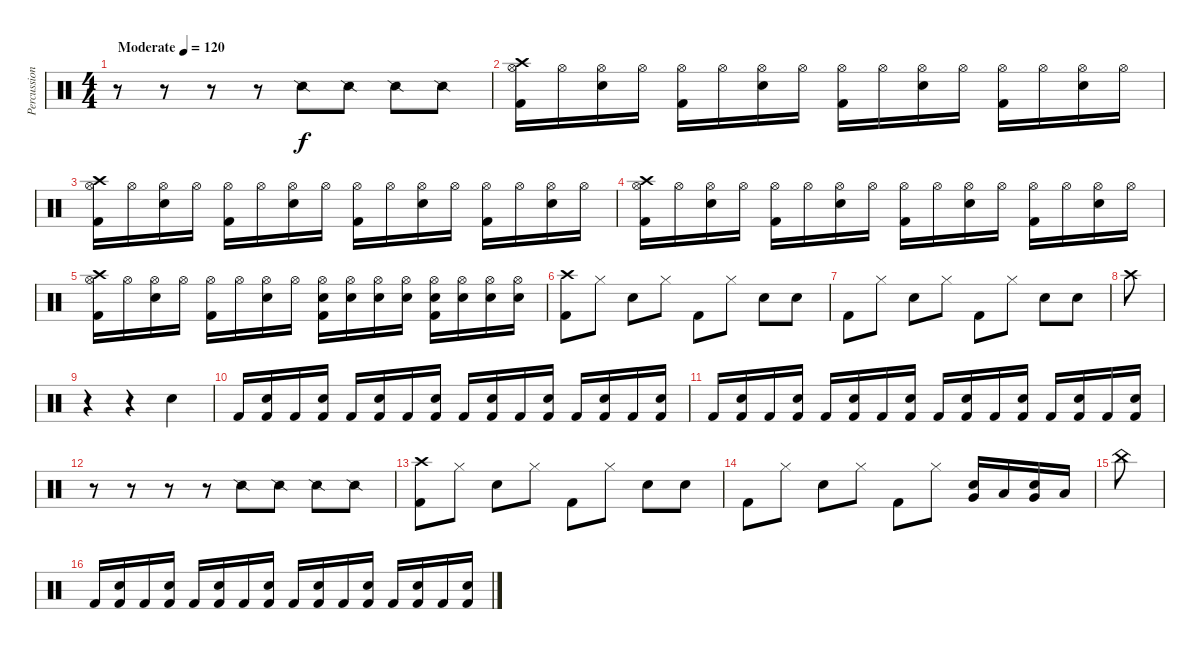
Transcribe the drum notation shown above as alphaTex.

\track ("Percussion" "Percussion") {instrument percussion}
\staff {score}
\articulation defaults
\ts (4 4)
\tempo (120 "Moderate")
\clef neutral
\ks c
r.8{dy f} r.8 r.8 r.8 "Snare (side stick) 2".8 "Snare (side stick) 2".8 "Snare (side stick) 2".8 "Snare (side stick) 2".8 |
("Hi-Hat (open)" "Crash high (hit)" "Kick (hit) 2").16 "Hi-Hat (open)".16 ("Hi-Hat (open)" "Snare (hit) 2").16 "Hi-Hat (open)".16 ("Hi-Hat (open)" "Kick (hit) 2").16 "Hi-Hat (open)".16 ("Hi-Hat (open)" "Snare (hit) 2").16 "Hi-Hat (open)".16 ("Hi-Hat (open)" "Kick (hit) 2").16 "Hi-Hat (open)".16 ("Hi-Hat (open)" "Snare (hit) 2").16 "Hi-Hat (open)".16 ("Hi-Hat (open)" "Kick (hit) 2").16 "Hi-Hat (open)".16 ("Hi-Hat (open)" "Snare (hit) 2").16 "Hi-Hat (open)".16 |
("Hi-Hat (open)" "Crash high (hit)" "Kick (hit) 2").16 "Hi-Hat (open)".16 ("Hi-Hat (open)" "Snare (hit) 2").16 "Hi-Hat (open)".16 ("Hi-Hat (open)" "Kick (hit) 2").16 "Hi-Hat (open)".16 ("Hi-Hat (open)" "Snare (hit) 2").16 "Hi-Hat (open)".16 ("Hi-Hat (open)" "Kick (hit) 2").16 "Hi-Hat (open)".16 ("Hi-Hat (open)" "Snare (hit) 2").16 "Hi-Hat (open)".16 ("Hi-Hat (open)" "Kick (hit) 2").16 "Hi-Hat (open)".16 ("Hi-Hat (open)" "Snare (hit) 2").16 "Hi-Hat (open)".16 |
("Hi-Hat (open)" "Crash high (hit)" "Kick (hit) 2").16 "Hi-Hat (open)".16 ("Hi-Hat (open)" "Snare (hit) 2").16 "Hi-Hat (open)".16 ("Hi-Hat (open)" "Kick (hit) 2").16 "Hi-Hat (open)".16 ("Hi-Hat (open)" "Snare (hit) 2").16 "Hi-Hat (open)".16 ("Hi-Hat (open)" "Kick (hit) 2").16 "Hi-Hat (open)".16 ("Hi-Hat (open)" "Snare (hit) 2").16 "Hi-Hat (open)".16 ("Hi-Hat (open)" "Kick (hit) 2").16 "Hi-Hat (open)".16 ("Hi-Hat (open)" "Snare (hit) 2").16 "Hi-Hat (open)".16 |
("Hi-Hat (open)" "Crash high (hit)" "Kick (hit) 2").16 "Hi-Hat (open)".16 ("Hi-Hat (open)" "Snare (hit) 2").16 "Hi-Hat (open)".16 ("Hi-Hat (open)" "Kick (hit) 2").16 "Hi-Hat (open)".16 ("Hi-Hat (open)" "Snare (hit) 2").16 "Hi-Hat (open)".16 ("Electric Snare (hit)" "Hi-Hat (open)" "Kick (hit) 2").16 ("Electric Snare (hit)" "Hi-Hat (open)").16 ("Hi-Hat (open)" "Snare (hit) 2").16 ("Electric Snare (hit)" "Hi-Hat (open)").16 ("Electric Snare (hit)" "Hi-Hat (open)" "Kick (hit) 2").16 ("Electric Snare (hit)" "Hi-Hat (open)").16 ("Hi-Hat (open)" "Snare (hit) 2").16 ("Electric Snare (hit)" "Hi-Hat (open)").16 |
("Crash high (hit)" "Kick (hit) 2").8 "Hi-Hat (closed)".8 "Snare (hit) 2".8 "Hi-Hat (closed)".8 "Kick (hit) 2".8 "Hi-Hat (closed)".8 "Snare (hit) 2".8 "Snare (hit) 2".8 |
"Kick (hit) 2".8 "Hi-Hat (closed)".8 "Snare (hit) 2".8 "Hi-Hat (closed)".8 "Kick (hit) 2".8 "Hi-Hat (closed)".8 "Snare (hit) 2".8 "Snare (hit) 2".8 |
"Crash high (hit)".8 |
r.4 r.4 "Snare (hit) 2".4 |
"Kick (hit) 2".16 ("Snare (hit) 2" "Kick (hit) 2").16 "Kick (hit) 2".16 ("Snare (hit) 2" "Kick (hit) 2").16 "Kick (hit) 2".16 ("Snare (hit) 2" "Kick (hit) 2").16 "Kick (hit) 2".16 ("Snare (hit) 2" "Kick (hit) 2").16 "Kick (hit) 2".16 ("Snare (hit) 2" "Kick (hit) 2").16 "Kick (hit) 2".16 ("Snare (hit) 2" "Kick (hit) 2").16 "Kick (hit) 2".16 ("Snare (hit) 2" "Kick (hit) 2").16 "Kick (hit) 2".16 ("Snare (hit) 2" "Kick (hit) 2").16 |
"Kick (hit) 2".16 ("Snare (hit) 2" "Kick (hit) 2").16 "Kick (hit) 2".16 ("Snare (hit) 2" "Kick (hit) 2").16 "Kick (hit) 2".16 ("Snare (hit) 2" "Kick (hit) 2").16 "Kick (hit) 2".16 ("Snare (hit) 2" "Kick (hit) 2").16 "Kick (hit) 2".16 ("Snare (hit) 2" "Kick (hit) 2").16 "Kick (hit) 2".16 ("Snare (hit) 2" "Kick (hit) 2").16 "Kick (hit) 2".16 ("Snare (hit) 2" "Kick (hit) 2").16 "Kick (hit) 2".16 ("Snare (hit) 2" "Kick (hit) 2").16 |
r.8 r.8 r.8 r.8 "Snare (side stick) 2".8 "Snare (side stick) 2".8 "Snare (side stick) 2".8 "Snare (side stick) 2".8 |
("Crash high (hit)" "Kick (hit) 2").8 "Hi-Hat (closed)".8 "Snare (hit) 2".8 "Hi-Hat (closed)".8 "Kick (hit) 2".8 "Hi-Hat (closed)".8 "Snare (hit) 2".8 "Snare (hit) 2".8 |
"Kick (hit) 2".8 "Hi-Hat (closed)".8 "Snare (hit) 2".8 "Hi-Hat (closed)".8 "Kick (hit) 2".8 "Hi-Hat (closed)".8 ("Very Low Tom (hit)" "Snare (hit) 2").16 "Low Floor Tom (hit)".16 ("Very Low Tom (hit)" "Snare (hit) 2").16 "Low Floor Tom (hit)".16 |
"China (hit)".8 |
"Kick (hit) 2".16 ("Snare (hit) 2" "Kick (hit) 2").16 "Kick (hit) 2".16 ("Snare (hit) 2" "Kick (hit) 2").16 "Kick (hit) 2".16 ("Snare (hit) 2" "Kick (hit) 2").16 "Kick (hit) 2".16 ("Snare (hit) 2" "Kick (hit) 2").16 "Kick (hit) 2".16 ("Snare (hit) 2" "Kick (hit) 2").16 "Kick (hit) 2".16 ("Snare (hit) 2" "Kick (hit) 2").16 "Kick (hit) 2".16 ("Snare (hit) 2" "Kick (hit) 2").16 "Kick (hit) 2".16 ("Snare (hit) 2" "Kick (hit) 2").16
